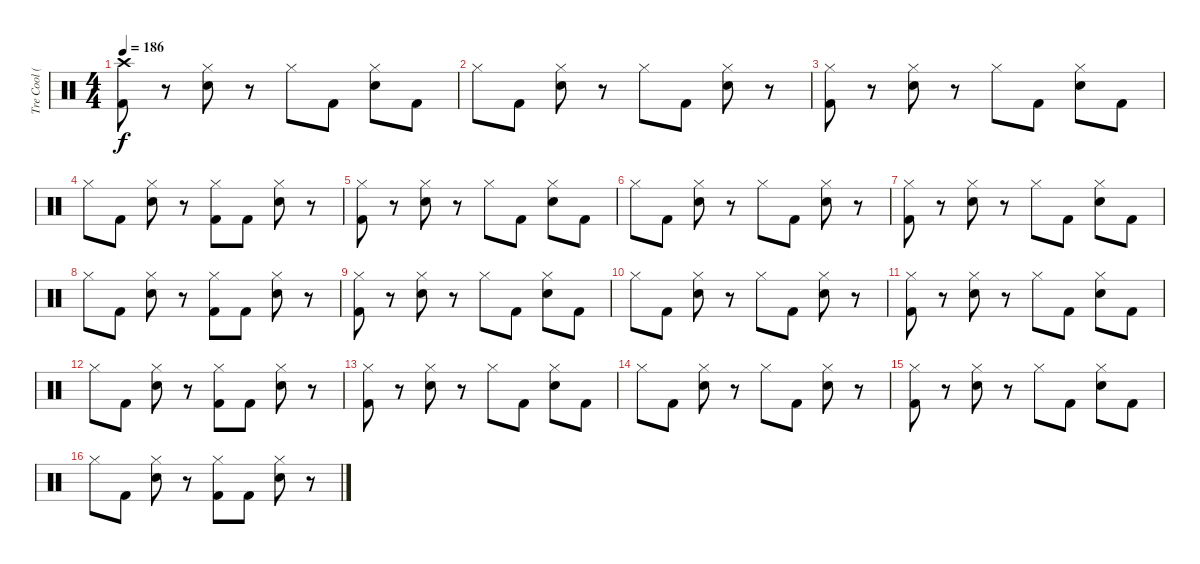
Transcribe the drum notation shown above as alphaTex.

\track ("Tre Cool (Drums)" "Tre Cool (") {instrument percussion}
\staff {score}
\articulation defaults
\ts (4 4)
\tempo 186
\clef neutral
\ks c
("Crash high (hit)" "Kick (hit) 2").8{dy f} r.8 ("Hi-Hat (closed)" "Snare (hit) 2").8 r.8 "Hi-Hat (closed)".8 "Kick (hit) 2".8 ("Hi-Hat (closed)" "Snare (hit) 2").8 "Kick (hit) 2".8 |
"Hi-Hat (closed)".8 "Kick (hit) 2".8 ("Hi-Hat (closed)" "Snare (hit) 2").8 r.8 "Hi-Hat (closed)".8 "Kick (hit) 2".8 ("Hi-Hat (closed)" "Snare (hit) 2").8 r.8 |
("Hi-Hat (closed)" "Kick (hit) 2").8 r.8 ("Hi-Hat (closed)" "Snare (hit) 2").8 r.8 "Hi-Hat (closed)".8 "Kick (hit) 2".8 ("Snare (hit) 2" "Hi-Hat (closed)").8 "Kick (hit) 2".8 |
"Hi-Hat (closed)".8 "Kick (hit) 2".8 ("Hi-Hat (closed)" "Snare (hit) 2").8 r.8 ("Hi-Hat (closed)" "Kick (hit) 2").8 "Kick (hit) 2".8 ("Hi-Hat (closed)" "Snare (hit) 2").8 r.8 |
("Kick (hit) 2" "Hi-Hat (closed)").8 r.8 ("Snare (hit) 2" "Hi-Hat (closed)").8 r.8 "Hi-Hat (closed)".8 "Kick (hit) 2".8 ("Snare (hit) 2" "Hi-Hat (closed)").8 "Kick (hit) 2".8 |
"Hi-Hat (closed)".8 "Kick (hit) 2".8 ("Snare (hit) 2" "Hi-Hat (closed)").8 r.8 "Hi-Hat (closed)".8 "Kick (hit) 2".8 ("Snare (hit) 2" "Hi-Hat (closed)").8 r.8 |
("Hi-Hat (closed)" "Kick (hit) 2").8 r.8 ("Hi-Hat (closed)" "Snare (hit) 2").8 r.8 "Hi-Hat (closed)".8 "Kick (hit) 2".8 ("Snare (hit) 2" "Hi-Hat (closed)").8 "Kick (hit) 2".8 |
"Hi-Hat (closed)".8 "Kick (hit) 2".8 ("Hi-Hat (closed)" "Snare (hit) 2").8 r.8 ("Hi-Hat (closed)" "Kick (hit) 2").8 "Kick (hit) 2".8 ("Hi-Hat (closed)" "Snare (hit) 2").8 r.8 |
("Hi-Hat (closed)" "Kick (hit) 2").8 r.8 ("Hi-Hat (closed)" "Snare (hit) 2").8 r.8 "Hi-Hat (closed)".8 "Kick (hit) 2".8 ("Hi-Hat (closed)" "Snare (hit) 2").8 "Kick (hit) 2".8 |
"Hi-Hat (closed)".8 "Kick (hit) 2".8 ("Hi-Hat (closed)" "Snare (hit) 2").8 r.8 "Hi-Hat (closed)".8 "Kick (hit) 2".8 ("Hi-Hat (closed)" "Snare (hit) 2").8 r.8 |
("Hi-Hat (closed)" "Kick (hit) 2").8 r.8 ("Hi-Hat (closed)" "Snare (hit) 2").8 r.8 "Hi-Hat (closed)".8 "Kick (hit) 2".8 ("Snare (hit) 2" "Hi-Hat (closed)").8 "Kick (hit) 2".8 |
"Hi-Hat (closed)".8 "Kick (hit) 2".8 ("Hi-Hat (closed)" "Snare (hit) 2").8 r.8 ("Hi-Hat (closed)" "Kick (hit) 2").8 "Kick (hit) 2".8 ("Hi-Hat (closed)" "Snare (hit) 2").8 r.8 |
("Hi-Hat (closed)" "Kick (hit) 2").8 r.8 ("Hi-Hat (closed)" "Snare (hit) 2").8 r.8 "Hi-Hat (closed)".8 "Kick (hit) 2".8 ("Hi-Hat (closed)" "Snare (hit) 2").8 "Kick (hit) 2".8 |
"Hi-Hat (closed)".8 "Kick (hit) 2".8 ("Hi-Hat (closed)" "Snare (hit) 2").8 r.8 "Hi-Hat (closed)".8 "Kick (hit) 2".8 ("Hi-Hat (closed)" "Snare (hit) 2").8 r.8 |
("Hi-Hat (closed)" "Kick (hit) 2").8 r.8 ("Hi-Hat (closed)" "Snare (hit) 2").8 r.8 "Hi-Hat (closed)".8 "Kick (hit) 2".8 ("Snare (hit) 2" "Hi-Hat (closed)").8 "Kick (hit) 2".8 |
"Hi-Hat (closed)".8 "Kick (hit) 2".8 ("Hi-Hat (closed)" "Snare (hit) 2").8 r.8 ("Hi-Hat (closed)" "Kick (hit) 2").8 "Kick (hit) 2".8 ("Hi-Hat (closed)" "Snare (hit) 2").8 r.8
